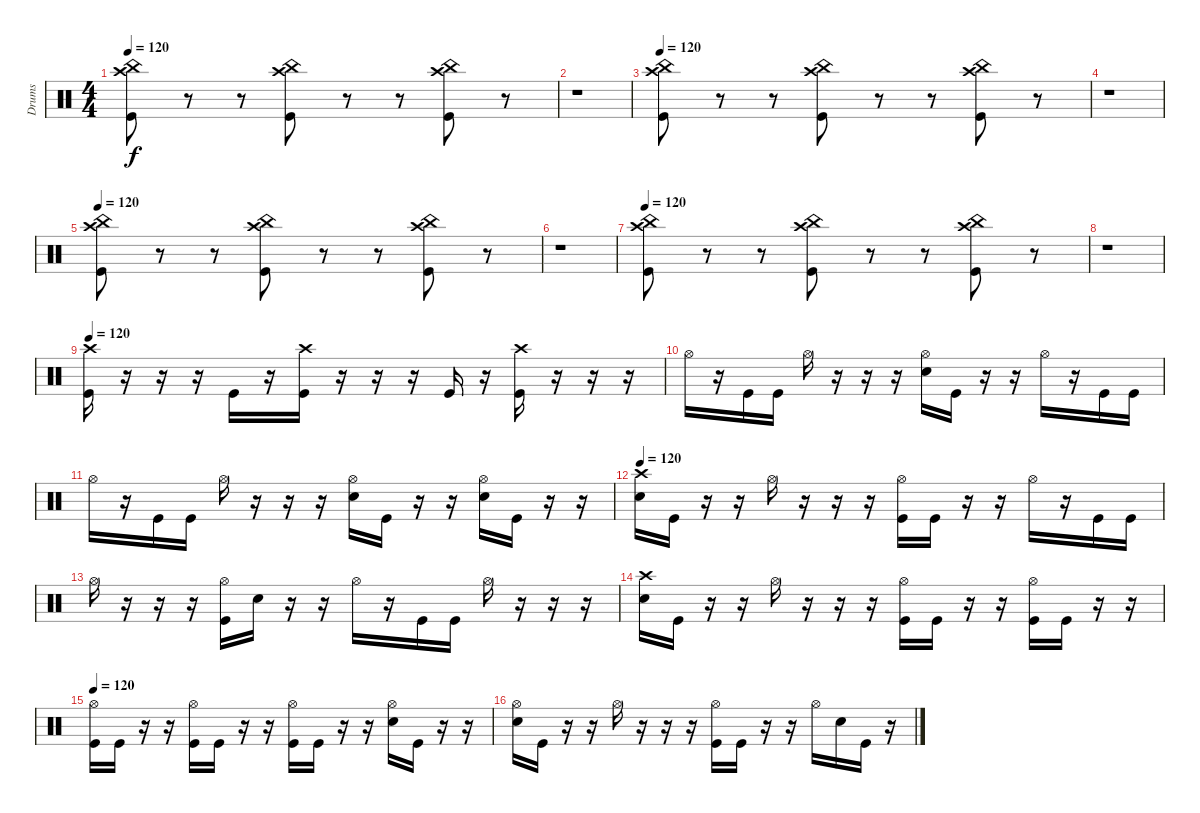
\track ("Drums" "Drums") {instrument percussion}
\staff {score}
\articulation defaults
\ts (4 4)
\tempo 120
\clef neutral
\ks c
("Crash high (hit)" "China (hit)" "Kick (hit)").8{dy f} r.8 r.8 ("Crash high (hit)" "China (hit)" "Kick (hit)").8 r.8 r.8 ("Crash high (hit)" "China (hit)" "Kick (hit)").8 r.8 |
r.1 |
\tempo 120
("Crash high (hit)" "China (hit)" "Kick (hit)").8 r.8 r.8 ("Crash high (hit)" "China (hit)" "Kick (hit)").8 r.8 r.8 ("Crash high (hit)" "China (hit)" "Kick (hit)").8 r.8 |
r.1 |
\tempo 120
("Crash high (hit)" "China (hit)" "Kick (hit)").8 r.8 r.8 ("Crash high (hit)" "China (hit)" "Kick (hit)").8 r.8 r.8 ("Crash high (hit)" "China (hit)" "Kick (hit)").8 r.8 |
r.1 |
\tempo 120
("Crash high (hit)" "China (hit)" "Kick (hit)").8 r.8 r.8 ("Crash high (hit)" "China (hit)" "Kick (hit)").8 r.8 r.8 ("Crash high (hit)" "China (hit)" "Kick (hit)").8 r.8 |
r.1 |
\tempo 120
("Crash high (hit)" "Kick (hit)").16 r.16 r.16 r.16 "Kick (hit)".16 r.16 ("Crash high (hit)" "Kick (hit)").16 r.16 r.16 r.16 "Kick (hit)".16 r.16 ("Crash high (hit)" "Kick (hit)").16 r.16 r.16 r.16 |
"Hi-Hat (open)".16 r.16 "Kick (hit)".16 "Kick (hit)".16 "Hi-Hat (open)".16 r.16 r.16 r.16 ("Hi-Hat (open)" "Snare (hit) 2").16 "Kick (hit)".16 r.16 r.16 "Hi-Hat (open)".16 r.16 "Kick (hit)".16 "Kick (hit)".16 |
"Hi-Hat (open)".16 r.16 "Kick (hit)".16 "Kick (hit)".16 "Hi-Hat (open)".16 r.16 r.16 r.16 ("Hi-Hat (open)" "Snare (hit) 2").16 "Kick (hit)".16 r.16 r.16 ("Hi-Hat (open)" "Snare (hit) 2").16 "Kick (hit)".16 r.16 r.16 |
\tempo 120
("Crash high (hit)" "Snare (hit) 2").16 "Kick (hit)".16 r.16 r.16 "Hi-Hat (open)".16 r.16 r.16 r.16 ("Hi-Hat (open)" "Kick (hit)").16 "Kick (hit)".16 r.16 r.16 "Hi-Hat (open)".16 r.16 "Kick (hit)".16 "Kick (hit)".16 |
"Hi-Hat (open)".16 r.16 r.16 r.16 ("Hi-Hat (open)" "Kick (hit)").16 "Snare (hit) 2".16 r.16 r.16 "Hi-Hat (open)".16 r.16 "Kick (hit)".16 "Kick (hit)".16 "Hi-Hat (open)".16 r.16 r.16 r.16 |
("Crash high (hit)" "Snare (hit) 2").16 "Kick (hit)".16 r.16 r.16 "Hi-Hat (open)".16 r.16 r.16 r.16 ("Hi-Hat (open)" "Kick (hit)").16 "Kick (hit)".16 r.16 r.16 ("Hi-Hat (open)" "Kick (hit)").16 "Kick (hit)".16 r.16 r.16 |
\tempo 120
("Hi-Hat (open)" "Kick (hit)").16 "Kick (hit)".16 r.16 r.16 ("Hi-Hat (open)" "Kick (hit)").16 "Kick (hit)".16 r.16 r.16 ("Hi-Hat (open)" "Kick (hit)").16 "Kick (hit)".16 r.16 r.16 ("Hi-Hat (open)" "Snare (hit) 2").16 "Kick (hit)".16 r.16 r.16 |
("Hi-Hat (open)" "Snare (hit) 2").16 "Kick (hit)".16 r.16 r.16 "Hi-Hat (open)".16 r.16 r.16 r.16 ("Hi-Hat (open)" "Kick (hit)").16 "Kick (hit)".16 r.16 r.16 "Hi-Hat (open)".16 "Snare (hit) 2".16 "Kick (hit)".16 r.16
